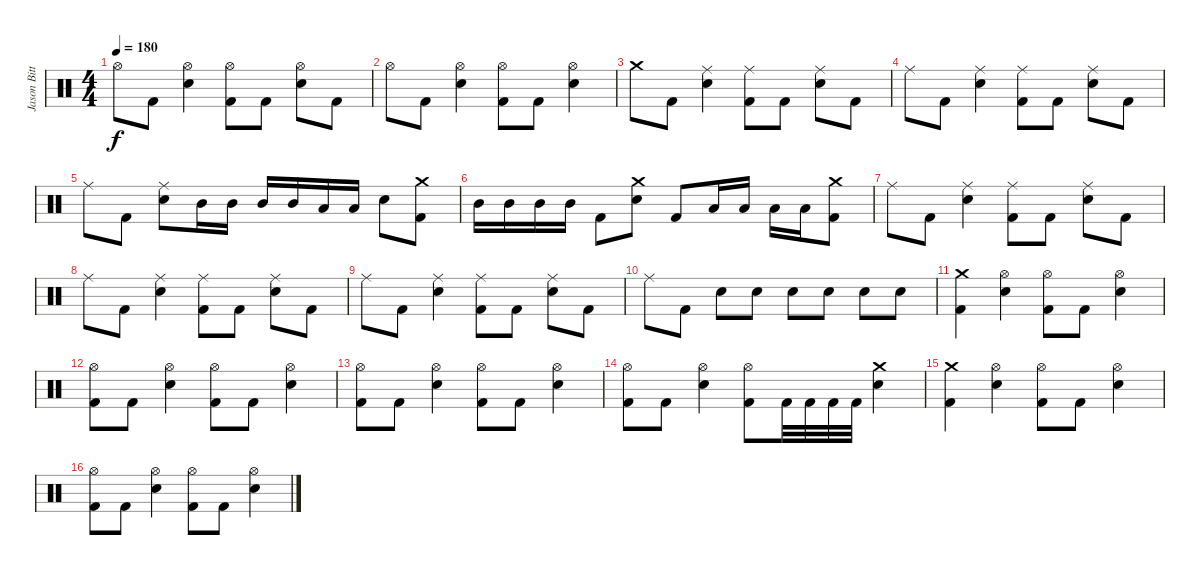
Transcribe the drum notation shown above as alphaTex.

\track ("Jason Bittner" "Jason Bitt") {instrument percussion}
\staff {score}
\articulation defaults
\ts (4 4)
\tempo 180
\clef neutral
\ks c "Hi-Hat (open)".8{dy f} "Kick (hit) 2".8
("Hi-Hat (open)" "Electric Snare (hit)").4 ("Hi-Hat (open)" "Kick (hit) 2").8 "Kick (hit) 2".8 ("Hi-Hat (open)" "Electric Snare (hit)").8 "Kick (hit) 2".8 |
"Hi-Hat (open)".8 "Kick (hit) 2".8 ("Hi-Hat (open)" "Electric Snare (hit)").4 ("Hi-Hat (open)" "Kick (hit) 2").8 "Kick (hit) 2".8 ("Hi-Hat (open)" "Electric Snare (hit)").4 |
"Crash medium (hit)".8 "Kick (hit) 2".8 ("Ride (middle)" "Electric Snare (hit)").4 ("Ride (middle)" "Kick (hit) 2").8 "Kick (hit) 2".8 ("Ride (middle)" "Electric Snare (hit)").8 "Kick (hit) 2".8 |
"Ride (middle)".8 "Kick (hit) 2".8 ("Ride (middle)" "Electric Snare (hit)").4 ("Ride (middle)" "Kick (hit) 2").8 "Kick (hit) 2".8 ("Ride (middle)" "Electric Snare (hit)").8 "Kick (hit) 2".8 |
"Ride (middle)".8 "Kick (hit) 2".8 ("Ride (middle)" "Electric Snare (hit)").8 "Mid Tom (hit)".16 "Mid Tom (hit)".16 "Mid Tom (hit)".16 "Mid Tom (hit)".16 "Low Tom (hit)".16 "Low Tom (hit)".16 "Electric Snare (hit)".8 ("Crash medium (hit)" "Kick (hit) 2").8 |
"Mid Tom (hit)".16 "Mid Tom (hit)".16 "Mid Tom (hit)".16 "Mid Tom (hit)".16 "Kick (hit) 2".8 ("Crash medium (hit)" "Electric Snare (hit)").8 "Kick (hit) 2".8 "Low Tom (hit)".16 "Low Tom (hit)".16 "Low Tom (hit)".16 "Low Tom (hit)".16 ("Crash medium (hit)" "Kick (hit) 2").8 |
"Ride (middle)".8 "Kick (hit) 2".8 ("Ride (middle)" "Electric Snare (hit)").4 ("Ride (middle)" "Kick (hit) 2").8 "Kick (hit) 2".8 ("Ride (middle)" "Electric Snare (hit)").8 "Kick (hit) 2".8 |
"Ride (middle)".8 "Kick (hit) 2".8 ("Ride (middle)" "Electric Snare (hit)").4 ("Ride (middle)" "Kick (hit) 2").8 "Kick (hit) 2".8 ("Ride (middle)" "Electric Snare (hit)").8 "Kick (hit) 2".8 |
"Ride (middle)".8 "Kick (hit) 2".8 ("Ride (middle)" "Electric Snare (hit)").4 ("Ride (middle)" "Kick (hit) 2").8 "Kick (hit) 2".8 ("Ride (middle)" "Electric Snare (hit)").8 "Kick (hit) 2".8 |
"Ride (middle)".8 "Kick (hit) 2".8 "Electric Snare (hit)".8 "Electric Snare (hit)".8 "Electric Snare (hit)".8 "Electric Snare (hit)".8 "Electric Snare (hit)".8 "Electric Snare (hit)".8 |
("Crash medium (hit)" "Kick (hit) 2").4 ("Hi-Hat (open)" "Electric Snare (hit)").4 ("Hi-Hat (open)" "Kick (hit) 2").8 "Kick (hit) 2".8 ("Hi-Hat (open)" "Electric Snare (hit)").4 |
("Hi-Hat (open)" "Kick (hit) 2").8 "Kick (hit) 2".8 ("Hi-Hat (open)" "Electric Snare (hit)").4 ("Hi-Hat (open)" "Kick (hit) 2").8 "Kick (hit) 2".8 ("Hi-Hat (open)" "Electric Snare (hit)").4 |
("Hi-Hat (open)" "Kick (hit) 2").8 "Kick (hit) 2".8 ("Hi-Hat (open)" "Electric Snare (hit)").4 ("Hi-Hat (open)" "Kick (hit) 2").8 "Kick (hit) 2".8 ("Hi-Hat (open)" "Electric Snare (hit)").4 |
("Hi-Hat (open)" "Kick (hit) 2").8 "Kick (hit) 2".8 ("Hi-Hat (open)" "Electric Snare (hit)").4 ("Hi-Hat (open)" "Kick (hit) 2").8 "Kick (hit) 2".32 "Kick (hit) 2".32 "Kick (hit) 2".32 "Kick (hit) 2".32 ("Crash medium (hit)" "Electric Snare (hit)").4 |
("Crash medium (hit)" "Kick (hit) 2").4 ("Hi-Hat (open)" "Electric Snare (hit)").4 ("Hi-Hat (open)" "Kick (hit) 2").8 "Kick (hit) 2".8 ("Hi-Hat (open)" "Electric Snare (hit)").4 |
("Hi-Hat (open)" "Kick (hit) 2").8 "Kick (hit) 2".8 ("Hi-Hat (open)" "Electric Snare (hit)").4 ("Hi-Hat (open)" "Kick (hit) 2").8 "Kick (hit) 2".8 ("Hi-Hat (open)" "Electric Snare (hit)").4
